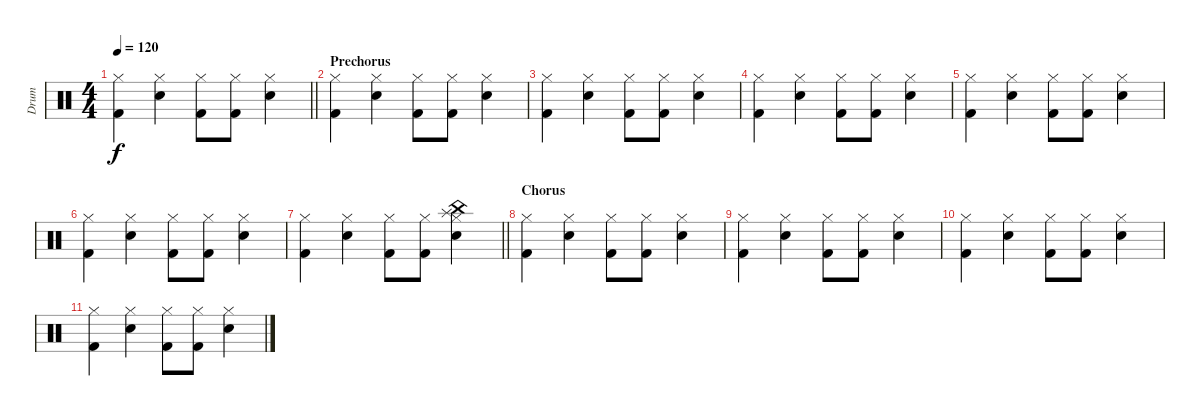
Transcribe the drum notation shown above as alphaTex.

\track ("Drum" "Drum") {instrument percussion}
\staff {score}
\articulation defaults
\ts (4 4)
\tempo 120
\clef neutral
\barLineRight lightlight
\ks c
("Hi-Hat (closed)" "Kick (hit) 2").4{dy f} ("Snare (hit) 2" "Hi-Hat (closed)").4 ("Hi-Hat (closed)" "Kick (hit) 2").8 ("Hi-Hat (closed)" "Kick (hit) 2").8 ("Snare (hit) 2" "Hi-Hat (closed)").4 |
\section ("" "Prechorus")
("Hi-Hat (closed)" "Kick (hit) 2").4 ("Snare (hit) 2" "Hi-Hat (closed)").4 ("Hi-Hat (closed)" "Kick (hit) 2").8 ("Hi-Hat (closed)" "Kick (hit) 2").8 ("Snare (hit) 2" "Hi-Hat (closed)").4 |
("Hi-Hat (closed)" "Kick (hit) 2").4 ("Snare (hit) 2" "Hi-Hat (closed)").4 ("Hi-Hat (closed)" "Kick (hit) 2").8 ("Hi-Hat (closed)" "Kick (hit) 2").8 ("Snare (hit) 2" "Hi-Hat (closed)").4 |
("Hi-Hat (closed)" "Kick (hit) 2").4 ("Snare (hit) 2" "Hi-Hat (closed)").4 ("Hi-Hat (closed)" "Kick (hit) 2").8 ("Hi-Hat (closed)" "Kick (hit) 2").8 ("Snare (hit) 2" "Hi-Hat (closed)").4 |
("Hi-Hat (closed)" "Kick (hit) 2").4 ("Snare (hit) 2" "Hi-Hat (closed)").4 ("Hi-Hat (closed)" "Kick (hit) 2").8 ("Hi-Hat (closed)" "Kick (hit) 2").8 ("Snare (hit) 2" "Hi-Hat (closed)").4 |
("Hi-Hat (closed)" "Kick (hit) 2").4 ("Snare (hit) 2" "Hi-Hat (closed)").4 ("Hi-Hat (closed)" "Kick (hit) 2").8 ("Hi-Hat (closed)" "Kick (hit) 2").8 ("Snare (hit) 2" "Hi-Hat (closed)").4 |
\barLineRight lightlight
("Hi-Hat (closed)" "Kick (hit) 2").4 ("Snare (hit) 2" "Hi-Hat (closed)").4 ("Hi-Hat (closed)" "Kick (hit) 2").8 ("Hi-Hat (closed)" "Kick (hit) 2").8 ("Snare (hit) 2" "Hi-Hat (closed)" "Splash (hit)" "China (hit)").4 |
\section ("" "Chorus")
("Hi-Hat (closed)" "Kick (hit) 2").4 ("Snare (hit) 2" "Hi-Hat (closed)").4 ("Hi-Hat (closed)" "Kick (hit) 2").8 ("Hi-Hat (closed)" "Kick (hit) 2").8 ("Snare (hit) 2" "Hi-Hat (closed)").4 |
("Hi-Hat (closed)" "Kick (hit) 2").4 ("Snare (hit) 2" "Hi-Hat (closed)").4 ("Hi-Hat (closed)" "Kick (hit) 2").8 ("Hi-Hat (closed)" "Kick (hit) 2").8 ("Snare (hit) 2" "Hi-Hat (closed)").4 |
("Hi-Hat (closed)" "Kick (hit) 2").4 ("Snare (hit) 2" "Hi-Hat (closed)").4 ("Hi-Hat (closed)" "Kick (hit) 2").8 ("Hi-Hat (closed)" "Kick (hit) 2").8 ("Snare (hit) 2" "Hi-Hat (closed)").4 |
("Hi-Hat (closed)" "Kick (hit) 2").4 ("Snare (hit) 2" "Hi-Hat (closed)").4 ("Hi-Hat (closed)" "Kick (hit) 2").8 ("Hi-Hat (closed)" "Kick (hit) 2").8 ("Snare (hit) 2" "Hi-Hat (closed)").4
